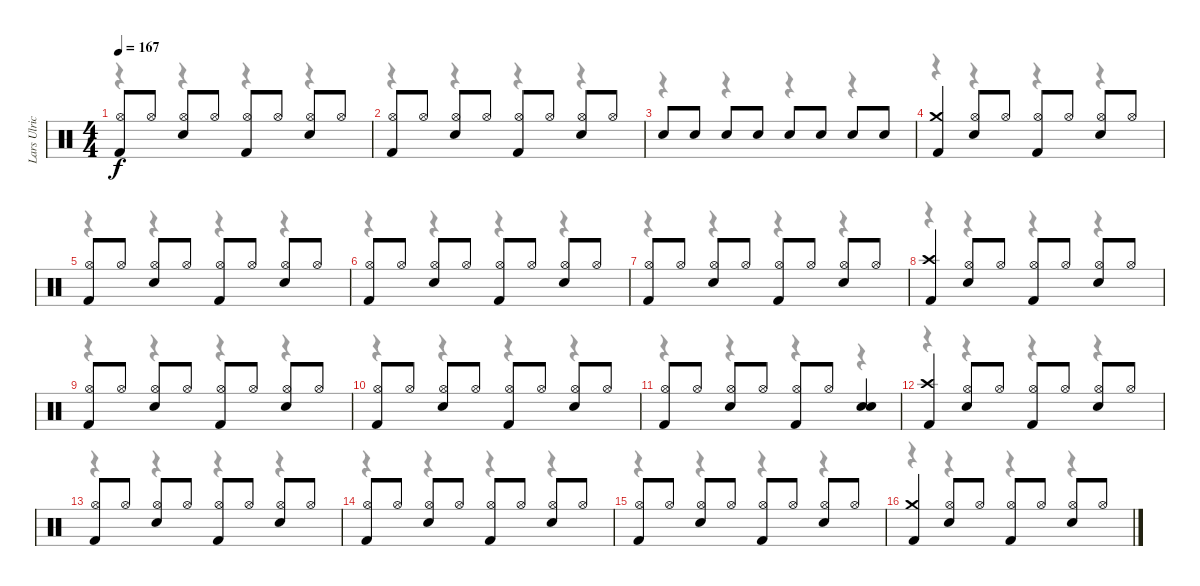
\track ("Lars Ulrich" "Lars Ulric") {instrument percussion}
\staff {score}
\articulation defaults
\voice
\ts (4 4)
\tempo 167
\clef neutral
\ks c
("Hi-Hat (open)" "Kick (hit) 2").8{dy f} "Hi-Hat (open)".8 ("Hi-Hat (open)" "Snare (hit) 2").8 "Hi-Hat (open)".8 ("Hi-Hat (open)" "Kick (hit) 2").8 "Hi-Hat (open)".8 ("Hi-Hat (open)" "Snare (hit) 2").8 "Hi-Hat (open)".8 |
("Hi-Hat (open)" "Kick (hit) 2").8 "Hi-Hat (open)".8 ("Hi-Hat (open)" "Snare (hit) 2").8 "Hi-Hat (open)".8 ("Hi-Hat (open)" "Kick (hit) 2").8 "Hi-Hat (open)".8 ("Hi-Hat (open)" "Snare (hit) 2").8 "Hi-Hat (open)".8 |
"Snare (hit) 2".8 "Snare (hit) 2".8 "Snare (hit) 2".8 "Snare (hit) 2".8 "Snare (hit) 2".8 "Snare (hit) 2".8 "Snare (hit) 2".8 "Snare (hit) 2".8 |
("Crash medium (hit)" "Kick (hit) 2").4 ("Hi-Hat (open)" "Snare (hit) 2").8 "Hi-Hat (open)".8 ("Hi-Hat (open)" "Kick (hit) 2").8 "Hi-Hat (open)".8 ("Hi-Hat (open)" "Snare (hit) 2").8 "Hi-Hat (open)".8 |
("Hi-Hat (open)" "Kick (hit) 2").8 "Hi-Hat (open)".8 ("Hi-Hat (open)" "Snare (hit) 2").8 "Hi-Hat (open)".8 ("Hi-Hat (open)" "Kick (hit) 2").8 "Hi-Hat (open)".8 ("Hi-Hat (open)" "Snare (hit) 2").8 "Hi-Hat (open)".8 |
("Hi-Hat (open)" "Kick (hit) 2").8 "Hi-Hat (open)".8 ("Hi-Hat (open)" "Snare (hit) 2").8 "Hi-Hat (open)".8 ("Hi-Hat (open)" "Kick (hit) 2").8 "Hi-Hat (open)".8 ("Hi-Hat (open)" "Snare (hit) 2").8 "Hi-Hat (open)".8 |
("Hi-Hat (open)" "Kick (hit) 2").8 "Hi-Hat (open)".8 ("Hi-Hat (open)" "Snare (hit) 2").8 "Hi-Hat (open)".8 ("Hi-Hat (open)" "Kick (hit) 2").8 "Hi-Hat (open)".8 ("Hi-Hat (open)" "Snare (hit) 2").8 "Hi-Hat (open)".8 |
("Crash high (hit)" "Kick (hit) 2").4 ("Hi-Hat (open)" "Snare (hit) 2").8 "Hi-Hat (open)".8 ("Hi-Hat (open)" "Kick (hit) 2").8 "Hi-Hat (open)".8 ("Hi-Hat (open)" "Snare (hit) 2").8 "Hi-Hat (open)".8 |
("Hi-Hat (open)" "Kick (hit) 2").8 "Hi-Hat (open)".8 ("Hi-Hat (open)" "Snare (hit) 2").8 "Hi-Hat (open)".8 ("Hi-Hat (open)" "Kick (hit) 2").8 "Hi-Hat (open)".8 ("Hi-Hat (open)" "Snare (hit) 2").8 "Hi-Hat (open)".8 |
("Hi-Hat (open)" "Kick (hit) 2").8 "Hi-Hat (open)".8 ("Hi-Hat (open)" "Snare (hit) 2").8 "Hi-Hat (open)".8 ("Hi-Hat (open)" "Kick (hit) 2").8 "Hi-Hat (open)".8 ("Hi-Hat (open)" "Snare (hit) 2").8 "Hi-Hat (open)".8 |
("Hi-Hat (open)" "Kick (hit) 2").8 "Hi-Hat (open)".8 ("Hi-Hat (open)" "Snare (hit) 2").8 "Hi-Hat (open)".8 ("Hi-Hat (open)" "Kick (hit) 2").8 "Hi-Hat (open)".8 ("Snare (hit) 2" "Snare (hit) 2").4 |
("Crash high (hit)" "Kick (hit) 2").4 ("Hi-Hat (open)" "Snare (hit) 2").8 "Hi-Hat (open)".8 ("Hi-Hat (open)" "Kick (hit) 2").8 "Hi-Hat (open)".8 ("Hi-Hat (open)" "Snare (hit) 2").8 "Hi-Hat (open)".8 |
("Hi-Hat (open)" "Kick (hit) 2").8 "Hi-Hat (open)".8 ("Hi-Hat (open)" "Snare (hit) 2").8 "Hi-Hat (open)".8 ("Hi-Hat (open)" "Kick (hit) 2").8 "Hi-Hat (open)".8 ("Hi-Hat (open)" "Snare (hit) 2").8 "Hi-Hat (open)".8 |
("Hi-Hat (open)" "Kick (hit) 2").8 "Hi-Hat (open)".8 ("Hi-Hat (open)" "Snare (hit) 2").8 "Hi-Hat (open)".8 ("Hi-Hat (open)" "Kick (hit) 2").8 "Hi-Hat (open)".8 ("Hi-Hat (open)" "Snare (hit) 2").8 "Hi-Hat (open)".8 |
("Hi-Hat (open)" "Kick (hit) 2").8 "Hi-Hat (open)".8 ("Hi-Hat (open)" "Snare (hit) 2").8 "Hi-Hat (open)".8 ("Hi-Hat (open)" "Kick (hit) 2").8 "Hi-Hat (open)".8 ("Hi-Hat (open)" "Snare (hit) 2").8 "Hi-Hat (open)".8 |
("Crash medium (hit)" "Kick (hit) 2").4 ("Hi-Hat (open)" "Snare (hit) 2").8 "Hi-Hat (open)".8 ("Hi-Hat (open)" "Kick (hit) 2").8 "Hi-Hat (open)".8 ("Hi-Hat (open)" "Snare (hit) 2").8 "Hi-Hat (open)".8
\voice
\clef neutral
\ottava regular
\simile none
\ks c
r.4{dy f} r.4 r.4 r.4 |
r.4 r.4 r.4 r.4 |
r.4 r.4 r.4 r.4 |
r.4 r.4 r.4 r.4 |
r.4 r.4 r.4 r.4 |
r.4 r.4 r.4 r.4 |
r.4 r.4 r.4 r.4 |
r.4 r.4 r.4 r.4 |
r.4 r.4 r.4 r.4 |
r.4 r.4 r.4 r.4 |
r.4 r.4 r.4 r.4 |
r.4 r.4 r.4 r.4 |
r.4 r.4 r.4 r.4 |
r.4 r.4 r.4 r.4 |
r.4 r.4 r.4 r.4 |
r.4 r.4 r.4 r.4
